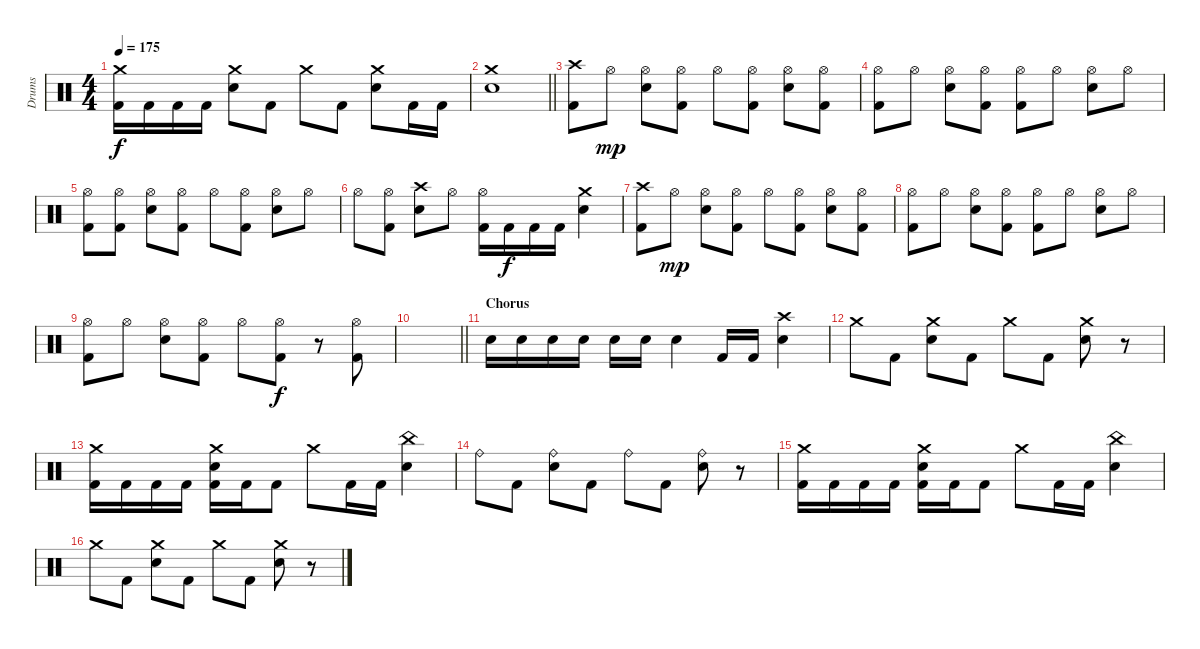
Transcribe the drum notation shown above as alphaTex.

\track ("Drums" "Drums") {instrument percussion}
\staff {score}
\articulation defaults
\ts (4 4)
\tempo 175
\clef neutral
\ks c
("Crash medium (hit)" "Kick (hit) 2").16{dy f} "Kick (hit) 2".16 "Kick (hit) 2".16 "Kick (hit) 2".16 ("Crash medium (hit)" "Electric Snare (hit)").8 "Kick (hit) 2".8 "Crash medium (hit)".8 "Kick (hit) 2".8 ("Crash medium (hit)" "Electric Snare (hit)").8 "Kick (hit) 2".16 "Kick (hit) 2".16 |
\barLineRight lightlight
("Crash medium (hit)" "Electric Snare (hit)").1 |
\section ("" "")
("Crash high (hit)" "Kick (hit) 2").8 "Hi-Hat (open)".8{dy mp} ("Hi-Hat (open)" "Electric Snare (hit)").8 ("Hi-Hat (open)" "Kick (hit) 2").8 "Hi-Hat (open)".8 ("Hi-Hat (open)" "Kick (hit) 2").8 ("Hi-Hat (open)" "Electric Snare (hit)").8 ("Hi-Hat (open)" "Kick (hit) 2").8 |
("Hi-Hat (open)" "Kick (hit) 2").8 "Hi-Hat (open)".8 ("Hi-Hat (open)" "Electric Snare (hit)").8 ("Hi-Hat (open)" "Kick (hit) 2").8 ("Hi-Hat (open)" "Kick (hit) 2").8 "Hi-Hat (open)".8 ("Hi-Hat (open)" "Electric Snare (hit)").8 "Hi-Hat (open)".8 |
("Hi-Hat (open)" "Kick (hit) 2").8 ("Hi-Hat (open)" "Kick (hit) 2").8 ("Hi-Hat (open)" "Electric Snare (hit)").8 ("Hi-Hat (open)" "Kick (hit) 2").8 "Hi-Hat (open)".8 ("Hi-Hat (open)" "Kick (hit) 2").8 ("Hi-Hat (open)" "Electric Snare (hit)").8 "Hi-Hat (open)".8 |
"Hi-Hat (open)".8 ("Hi-Hat (open)" "Kick (hit) 2").8 ("Crash high (hit)" "Electric Snare (hit)").8 "Hi-Hat (open)".8 ("Hi-Hat (open)" "Kick (hit) 2").16 "Kick (hit) 2".16{dy f} "Kick (hit) 2".16 "Kick (hit) 2".16 ("Crash medium (hit)" "Electric Snare (hit)").4 |
("Crash high (hit)" "Kick (hit) 2").8 "Hi-Hat (open)".8{dy mp} ("Hi-Hat (open)" "Electric Snare (hit)").8 ("Hi-Hat (open)" "Kick (hit) 2").8 "Hi-Hat (open)".8 ("Hi-Hat (open)" "Kick (hit) 2").8 ("Hi-Hat (open)" "Electric Snare (hit)").8 ("Hi-Hat (open)" "Kick (hit) 2").8 |
("Hi-Hat (open)" "Kick (hit) 2").8 "Hi-Hat (open)".8 ("Hi-Hat (open)" "Electric Snare (hit)").8 ("Hi-Hat (open)" "Kick (hit) 2").8 ("Hi-Hat (open)" "Kick (hit) 2").8 "Hi-Hat (open)".8 ("Hi-Hat (open)" "Electric Snare (hit)").8 "Hi-Hat (open)".8 |
("Hi-Hat (open)" "Kick (hit) 2").8 "Hi-Hat (open)".8 ("Hi-Hat (open)" "Electric Snare (hit)").8 ("Hi-Hat (open)" "Kick (hit) 2").8 "Hi-Hat (open)".8 ("Hi-Hat (open)" "Kick (hit) 2").8{dy f} r.8 ("Hi-Hat (open)" "Kick (hit) 2").8 |
\barLineRight lightlight
|
\section ("" "Chorus")
"Electric Snare (hit)".16 "Electric Snare (hit)".16 "Electric Snare (hit)".16 "Electric Snare (hit)".16 "Electric Snare (hit)".16 "Electric Snare (hit)".16 "Electric Snare (hit)".4 "Kick (hit) 2".16 "Kick (hit) 2".16 ("Crash high (hit)" "Electric Snare (hit)").4 |
"Crash medium (hit)".8 "Kick (hit) 2".8 ("Crash medium (hit)" "Electric Snare (hit)").8 "Kick (hit) 2".8 "Crash medium (hit)".8 "Kick (hit) 2".8 ("Crash medium (hit)" "Electric Snare (hit)").8 r.8 |
("Crash medium (hit)" "Kick (hit) 2").16 "Kick (hit) 2".16 "Kick (hit) 2".16 "Kick (hit) 2".16 ("Crash medium (hit)" "Electric Snare (hit)" "Kick (hit) 2").16 "Kick (hit) 2".16 "Kick (hit) 2".8 "Crash medium (hit)".8 "Kick (hit) 2".16 "Kick (hit) 2".16 ("China (hit)" "Electric Snare (hit)").4 |
"Ride (bell)".8 "Kick (hit) 2".8 ("Ride (bell)" "Electric Snare (hit)").8 "Kick (hit) 2".8 "Ride (bell)".8 "Kick (hit) 2".8 ("Ride (bell)" "Electric Snare (hit)").8 r.8 |
("Crash medium (hit)" "Kick (hit) 2").16 "Kick (hit) 2".16 "Kick (hit) 2".16 "Kick (hit) 2".16 ("Crash medium (hit)" "Electric Snare (hit)" "Kick (hit) 2").16 "Kick (hit) 2".16 "Kick (hit) 2".8 "Crash medium (hit)".8 "Kick (hit) 2".16 "Kick (hit) 2".16 ("China (hit)" "Electric Snare (hit)").4 |
"Crash medium (hit)".8 "Kick (hit) 2".8 ("Crash medium (hit)" "Electric Snare (hit)").8 "Kick (hit) 2".8 "Crash medium (hit)".8 "Kick (hit) 2".8 ("Crash medium (hit)" "Electric Snare (hit)").8 r.8
